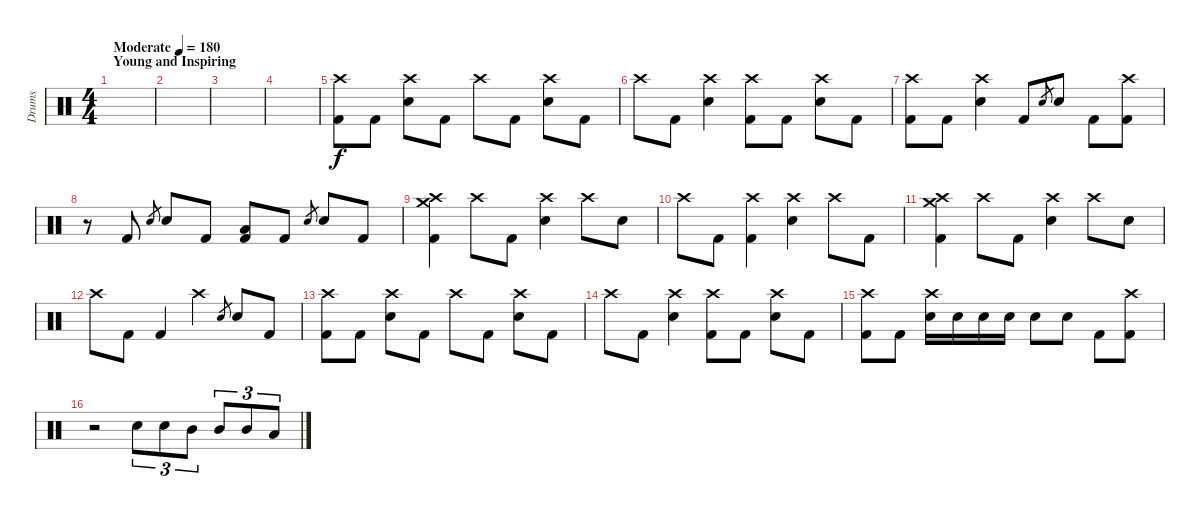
\track ("Drums" "Drums") {instrument percussion}
\staff {score}
\articulation defaults
\ts (4 4)
\section ("" "Young and Inspiring")
\tempo (180 "Moderate")
\clef neutral
\ks c
|
|
|
|
("Crash high (hit)" "Kick (hit) 2").8 "Kick (hit) 2".8 ("Crash high (hit)" "Electric Snare (hit)").8 "Kick (hit) 2".8 "Crash high (hit)".8 "Kick (hit) 2".8 ("Crash high (hit)" "Electric Snare (hit)").8 "Kick (hit) 2".8 |
"Crash high (hit)".8 "Kick (hit) 2".8 ("Crash high (hit)" "Electric Snare (hit)").4 ("Crash high (hit)" "Kick (hit) 2").8 "Kick (hit) 2".8 ("Crash high (hit)" "Electric Snare (hit)").8 "Kick (hit) 2".8 |
("Crash high (hit)" "Kick (hit) 2").8 "Kick (hit) 2".8 ("Crash high (hit)" "Electric Snare (hit)").4 "Kick (hit) 2".8 "Electric Snare (hit)".8{gr} "Electric Snare (hit)".8 "Kick (hit) 2".8 ("Crash high (hit)" "Kick (hit) 2").8 |
r.8 "Kick (hit) 2".8 "Electric Snare (hit)".8{gr} "Electric Snare (hit)".8 "Kick (hit) 2".8 ("Low Tom (hit)" "Kick (hit) 2").8 "Kick (hit) 2".8 "Electric Snare (hit)".8{gr} "Electric Snare (hit)".8 "Kick (hit) 2".8 |
("Crash high (hit)" "Crash medium (hit)" "Kick (hit) 2").4 "Crash high (hit)".8 "Kick (hit) 2".8 ("Crash high (hit)" "Electric Snare (hit)").4 "Crash high (hit)".8 "Electric Snare (hit)".8 |
"Crash high (hit)".8 "Kick (hit) 2".8 ("Crash high (hit)" "Kick (hit) 2").4 ("Crash high (hit)" "Electric Snare (hit)").4 "Crash high (hit)".8 "Kick (hit) 2".8 |
("Crash high (hit)" "Crash medium (hit)" "Kick (hit) 2").4 "Crash high (hit)".8 "Kick (hit) 2".8 ("Crash high (hit)" "Electric Snare (hit)").4 "Crash high (hit)".8 "Electric Snare (hit)".8 |
"Crash high (hit)".8 "Kick (hit) 2".8 "Kick (hit) 2".4 "Crash high (hit)".4 "Electric Snare (hit)".8{gr} "Electric Snare (hit)".8 "Kick (hit) 2".8 |
("Crash high (hit)" "Kick (hit) 2").8 "Kick (hit) 2".8 ("Crash high (hit)" "Electric Snare (hit)").8 "Kick (hit) 2".8 "Crash high (hit)".8 "Kick (hit) 2".8 ("Crash high (hit)" "Electric Snare (hit)").8 "Kick (hit) 2".8 |
"Crash high (hit)".8 "Kick (hit) 2".8 ("Crash high (hit)" "Electric Snare (hit)").4 ("Crash high (hit)" "Kick (hit) 2").8 "Kick (hit) 2".8 ("Crash high (hit)" "Electric Snare (hit)").8 "Kick (hit) 2".8 |
("Crash high (hit)" "Kick (hit) 2").8 "Kick (hit) 2".8 ("Crash high (hit)" "Electric Snare (hit)").16 "Electric Snare (hit)".16 "Electric Snare (hit)".16 "Electric Snare (hit)".16 "Electric Snare (hit)".8 "Electric Snare (hit)".8 "Kick (hit) 2".8 ("Crash high (hit)" "Kick (hit) 2").8 |
r.2 "Electric Snare (hit)".8{tu (3 2)} "Electric Snare (hit)".8{tu (3 2)} "Mid Tom (hit)".8{tu (3 2)} "Mid Tom (hit)".8{tu (3 2)} "Mid Tom (hit)".8{tu (3 2)} "Low Tom (hit)".8{tu (3 2)}
